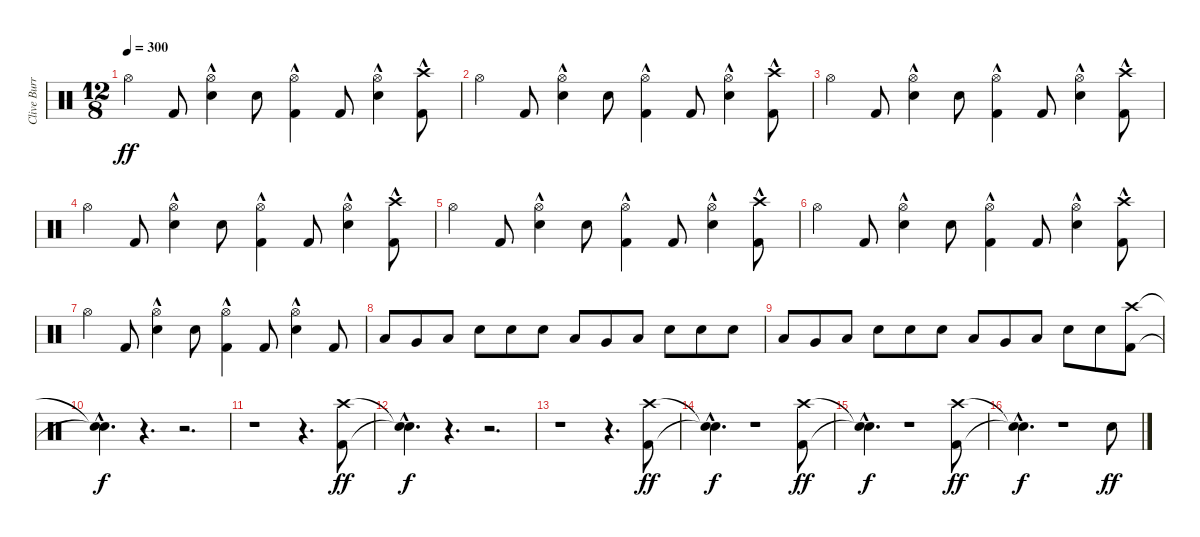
\track ("Clive Burr" "Clive Burr") {instrument percussion}
\staff {score}
\articulation defaults
\ts (12 8)
\tempo 300
\clef neutral
\ks c "Hi-Hat (open)".4{dy ff} "Kick (hit) 2".8
("Snare (hit) 2"{hac} "Hi-Hat (open)").4 "Snare (hit) 2".8 ("Kick (hit) 2"{hac} "Hi-Hat (open)").4 "Kick (hit) 2".8 ("Snare (hit) 2"{hac} "Hi-Hat (open)").4 ("Kick (hit) 2" "Crash high (hit)"{hac}).8 |
"Hi-Hat (open)".4 "Kick (hit) 2".8 ("Snare (hit) 2"{hac} "Hi-Hat (open)").4 "Snare (hit) 2".8 ("Kick (hit) 2"{hac} "Hi-Hat (open)").4 "Kick (hit) 2".8 ("Snare (hit) 2"{hac} "Hi-Hat (open)").4 ("Kick (hit) 2" "Crash high (hit)"{hac}).8 |
"Hi-Hat (open)".4 "Kick (hit) 2".8 ("Snare (hit) 2"{hac} "Hi-Hat (open)").4 "Snare (hit) 2".8 ("Kick (hit) 2"{hac} "Hi-Hat (open)").4 "Kick (hit) 2".8 ("Snare (hit) 2"{hac} "Hi-Hat (open)").4 ("Kick (hit) 2" "Crash high (hit)"{hac}).8 |
"Hi-Hat (open)".4 "Kick (hit) 2".8 ("Snare (hit) 2"{hac} "Hi-Hat (open)").4 "Snare (hit) 2".8 ("Kick (hit) 2"{hac} "Hi-Hat (open)").4 "Kick (hit) 2".8 ("Snare (hit) 2"{hac} "Hi-Hat (open)").4 ("Kick (hit) 2" "Crash high (hit)"{hac}).8 |
"Hi-Hat (open)".4 "Kick (hit) 2".8 ("Snare (hit) 2"{hac} "Hi-Hat (open)").4 "Snare (hit) 2".8 ("Kick (hit) 2"{hac} "Hi-Hat (open)").4 "Kick (hit) 2".8 ("Snare (hit) 2"{hac} "Hi-Hat (open)").4 ("Kick (hit) 2" "Crash high (hit)"{hac}).8 |
"Hi-Hat (open)".4 "Kick (hit) 2".8 ("Snare (hit) 2"{hac} "Hi-Hat (open)").4 "Snare (hit) 2".8 ("Kick (hit) 2"{hac} "Hi-Hat (open)").4 "Kick (hit) 2".8 ("Snare (hit) 2"{hac} "Hi-Hat (open)").4 ("Kick (hit) 2" "Crash high (hit)"{hac}).8 |
"Hi-Hat (open)".4 "Kick (hit) 2".8 ("Snare (hit) 2"{hac} "Hi-Hat (open)").4 "Snare (hit) 2".8 ("Kick (hit) 2"{hac} "Hi-Hat (open)").4 "Kick (hit) 2".8 ("Snare (hit) 2"{hac} "Hi-Hat (open)").4 "Kick (hit) 2".8 |
"Low Tom (hit)".8 "Very Low Tom (hit)".8 "Low Floor Tom (hit)".8 "Snare (hit) 2".8 "Snare (hit) 2".8 "Snare (hit) 2".8 "Low Tom (hit)".8 "Very Low Tom (hit)".8 "Low Floor Tom (hit)".8 "Snare (hit) 2".8 "Snare (hit) 2".8 "Snare (hit) 2".8 |
"Low Tom (hit)".8 "Very Low Tom (hit)".8 "Low Floor Tom (hit)".8 "Snare (hit) 2".8 "Snare (hit) 2".8 "Snare (hit) 2".8 "Low Tom (hit)".8 "Very Low Tom (hit)".8 "Low Floor Tom (hit)".8 "Snare (hit) 2".8 "Snare (hit) 2".8 ("Kick (hit) 2" "Crash high (hit)").8 |
("Snare (hit)"{hac t} "Snare (hit)"{hac t}).4{d dy f} r.4{d} r.2{d} |
r.1 r.4{d} ("Kick (hit) 2" "Crash high (hit)").8{dy ff} |
("Snare (hit)"{hac t} "Snare (hit)"{hac t}).4{d dy f} r.4{d} r.2{d} |
r.1 r.4{d} ("Kick (hit) 2" "Crash high (hit)").8{dy ff} |
("Snare (hit)"{hac t} "Snare (hit)"{hac t}).4{d dy f} r.1 ("Kick (hit) 2" "Crash high (hit)").8{dy ff} |
("Snare (hit)"{hac t} "Snare (hit)"{hac t}).4{d dy f} r.1 ("Kick (hit) 2" "Crash high (hit)").8{dy ff} |
("Snare (hit)"{hac t} "Snare (hit)"{hac t}).4{d dy f} r.1 "Snare (hit) 2".8{dy ff}
